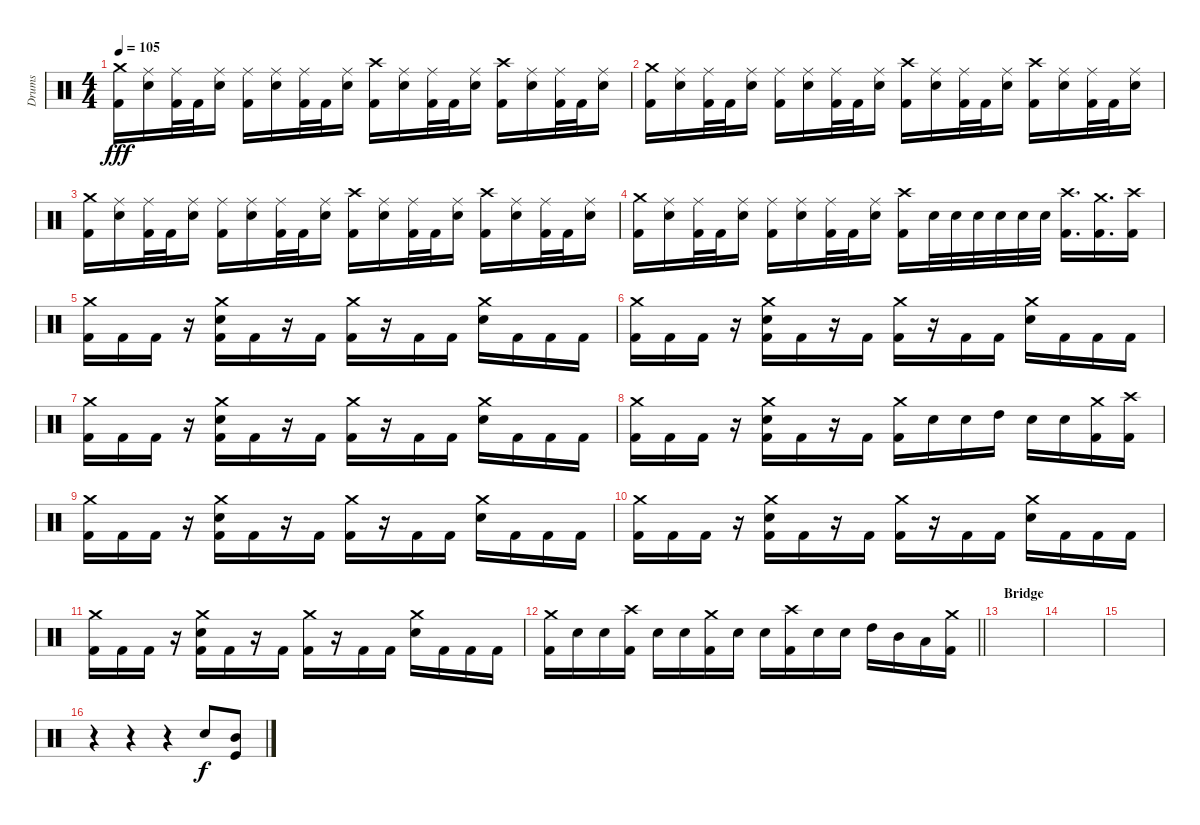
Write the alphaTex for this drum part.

\track ("Drums" "Drums") {instrument percussion}
\staff {score}
\articulation defaults
\ts (4 4)
\tempo 105
\clef neutral
\ks c
("Crash medium (hit)" "Kick (hit) 2").16{dy fff} ("Ride (middle)" "Electric Snare (hit)").16 ("Ride (middle)" "Kick (hit) 2").32 "Kick (hit) 2".32 ("Ride (middle)" "Electric Snare (hit)").16 ("Ride (middle)" "Kick (hit) 2").16 ("Ride (middle)" "Electric Snare (hit)").16 ("Ride (middle)" "Kick (hit) 2").32 "Kick (hit) 2".32 ("Ride (middle)" "Electric Snare (hit)").16 ("Crash high (hit)" "Kick (hit) 2").16 ("Ride (middle)" "Electric Snare (hit)").16 ("Ride (middle)" "Kick (hit) 2").32 "Kick (hit) 2".32 ("Ride (middle)" "Electric Snare (hit)").16 ("Crash high (hit)" "Kick (hit) 2").16 ("Ride (middle)" "Electric Snare (hit)").16 ("Ride (middle)" "Kick (hit) 2").32 "Kick (hit) 2".32 ("Ride (middle)" "Electric Snare (hit)").16 |
("Crash medium (hit)" "Kick (hit) 2").16 ("Ride (middle)" "Electric Snare (hit)").16 ("Ride (middle)" "Kick (hit) 2").32 "Kick (hit) 2".32 ("Ride (middle)" "Electric Snare (hit)").16 ("Ride (middle)" "Kick (hit) 2").16 ("Ride (middle)" "Electric Snare (hit)").16 ("Ride (middle)" "Kick (hit) 2").32 "Kick (hit) 2".32 ("Ride (middle)" "Electric Snare (hit)").16 ("Crash high (hit)" "Kick (hit) 2").16 ("Ride (middle)" "Electric Snare (hit)").16 ("Ride (middle)" "Kick (hit) 2").32 "Kick (hit) 2".32 ("Ride (middle)" "Electric Snare (hit)").16 ("Crash high (hit)" "Kick (hit) 2").16 ("Ride (middle)" "Electric Snare (hit)").16 ("Ride (middle)" "Kick (hit) 2").32 "Kick (hit) 2".32 ("Ride (middle)" "Electric Snare (hit)").16 |
("Crash medium (hit)" "Kick (hit) 2").16 ("Ride (middle)" "Electric Snare (hit)").16 ("Ride (middle)" "Kick (hit) 2").32 "Kick (hit) 2".32 ("Ride (middle)" "Electric Snare (hit)").16 ("Ride (middle)" "Kick (hit) 2").16 ("Ride (middle)" "Electric Snare (hit)").16 ("Ride (middle)" "Kick (hit) 2").32 "Kick (hit) 2".32 ("Ride (middle)" "Electric Snare (hit)").16 ("Crash high (hit)" "Kick (hit) 2").16 ("Ride (middle)" "Electric Snare (hit)").16 ("Ride (middle)" "Kick (hit) 2").32 "Kick (hit) 2".32 ("Ride (middle)" "Electric Snare (hit)").16 ("Crash high (hit)" "Kick (hit) 2").16 ("Ride (middle)" "Electric Snare (hit)").16 ("Ride (middle)" "Kick (hit) 2").32 "Kick (hit) 2".32 ("Ride (middle)" "Electric Snare (hit)").16 |
("Crash medium (hit)" "Kick (hit) 2").16 ("Ride (middle)" "Electric Snare (hit)").16 ("Ride (middle)" "Kick (hit) 2").32 "Kick (hit) 2".32 ("Ride (middle)" "Electric Snare (hit)").16 ("Ride (middle)" "Kick (hit) 2").16 ("Ride (middle)" "Electric Snare (hit)").16 ("Ride (middle)" "Kick (hit) 2").32 "Kick (hit) 2".32 ("Ride (middle)" "Electric Snare (hit)").16 ("Crash high (hit)" "Kick (hit) 2").16 "Electric Snare (hit)".32 "Electric Snare (hit)".32 "Electric Snare (hit)".32 "Electric Snare (hit)".32 "Electric Snare (hit)".32 "Electric Snare (hit)".32 ("Crash high (hit)" "Kick (hit) 2").16{d} ("Crash medium (hit)" "Kick (hit) 2").16{d} ("Crash high (hit)" "Kick (hit) 2").16 |
("Crash medium (hit)" "Kick (hit) 2").16 "Kick (hit) 2".16 "Kick (hit) 2".16 r.16 ("Crash medium (hit)" "Electric Snare (hit)" "Kick (hit) 2").16 "Kick (hit) 2".16 r.16 "Kick (hit) 2".16 ("Crash medium (hit)" "Kick (hit) 2").16 r.16 "Kick (hit) 2".16 "Kick (hit) 2".16 ("Crash medium (hit)" "Electric Snare (hit)").16 "Kick (hit) 2".16 "Kick (hit) 2".16 "Kick (hit) 2".16 |
("Crash medium (hit)" "Kick (hit) 2").16 "Kick (hit) 2".16 "Kick (hit) 2".16 r.16 ("Crash medium (hit)" "Electric Snare (hit)" "Kick (hit) 2").16 "Kick (hit) 2".16 r.16 "Kick (hit) 2".16 ("Crash medium (hit)" "Kick (hit) 2").16 r.16 "Kick (hit) 2".16 "Kick (hit) 2".16 ("Crash medium (hit)" "Electric Snare (hit)").16 "Kick (hit) 2".16 "Kick (hit) 2".16 "Kick (hit) 2".16 |
("Crash medium (hit)" "Kick (hit) 2").16 "Kick (hit) 2".16 "Kick (hit) 2".16 r.16 ("Crash medium (hit)" "Electric Snare (hit)" "Kick (hit) 2").16 "Kick (hit) 2".16 r.16 "Kick (hit) 2".16 ("Crash medium (hit)" "Kick (hit) 2").16 r.16 "Kick (hit) 2".16 "Kick (hit) 2".16 ("Crash medium (hit)" "Electric Snare (hit)").16 "Kick (hit) 2".16 "Kick (hit) 2".16 "Kick (hit) 2".16 |
("Crash medium (hit)" "Kick (hit) 2").16 "Kick (hit) 2".16 "Kick (hit) 2".16 r.16 ("Crash medium (hit)" "Electric Snare (hit)" "Kick (hit) 2").16 "Kick (hit) 2".16 r.16 "Kick (hit) 2".16 ("Crash medium (hit)" "Kick (hit) 2").16 "Electric Snare (hit)".16 "Electric Snare (hit)".16 "High Tom (hit)".16 "Electric Snare (hit)".16 "Electric Snare (hit)".16 ("Crash medium (hit)" "Kick (hit) 2").16 ("Crash high (hit)" "Kick (hit) 2").16 |
("Crash medium (hit)" "Kick (hit) 2").16 "Kick (hit) 2".16 "Kick (hit) 2".16 r.16 ("Crash medium (hit)" "Electric Snare (hit)" "Kick (hit) 2").16 "Kick (hit) 2".16 r.16 "Kick (hit) 2".16 ("Crash medium (hit)" "Kick (hit) 2").16 r.16 "Kick (hit) 2".16 "Kick (hit) 2".16 ("Crash medium (hit)" "Electric Snare (hit)").16 "Kick (hit) 2".16 "Kick (hit) 2".16 "Kick (hit) 2".16 |
("Crash medium (hit)" "Kick (hit) 2").16 "Kick (hit) 2".16 "Kick (hit) 2".16 r.16 ("Crash medium (hit)" "Electric Snare (hit)" "Kick (hit) 2").16 "Kick (hit) 2".16 r.16 "Kick (hit) 2".16 ("Crash medium (hit)" "Kick (hit) 2").16 r.16 "Kick (hit) 2".16 "Kick (hit) 2".16 ("Crash medium (hit)" "Electric Snare (hit)").16 "Kick (hit) 2".16 "Kick (hit) 2".16 "Kick (hit) 2".16 |
("Crash medium (hit)" "Kick (hit) 2").16 "Kick (hit) 2".16 "Kick (hit) 2".16 r.16 ("Crash medium (hit)" "Electric Snare (hit)" "Kick (hit) 2").16 "Kick (hit) 2".16 r.16 "Kick (hit) 2".16 ("Crash medium (hit)" "Kick (hit) 2").16 r.16 "Kick (hit) 2".16 "Kick (hit) 2".16 ("Crash medium (hit)" "Electric Snare (hit)").16 "Kick (hit) 2".16 "Kick (hit) 2".16 "Kick (hit) 2".16 |
\barLineRight lightlight
("Crash medium (hit)" "Kick (hit) 2").16 "Electric Snare (hit)".16 "Electric Snare (hit)".16 ("Crash high (hit)" "Kick (hit) 2").16 "Electric Snare (hit)".16 "Electric Snare (hit)".16 ("Crash medium (hit)" "Kick (hit) 2").16 "Electric Snare (hit)".16 "Electric Snare (hit)".16 ("Crash high (hit)" "Kick (hit) 2").16 "Electric Snare (hit)".16 "Electric Snare (hit)".16 "High Tom (hit)".16 "Mid Tom (hit)".16 "Low Tom (hit)".16 ("Crash medium (hit)" "Kick (hit) 2").16 |
\section ("" "Bridge")
|
|
|
r.4 r.4 r.4 "Snare (hit) 2".8{dy f} ("Mid Tom (hit)" "Kick (hit)").8
